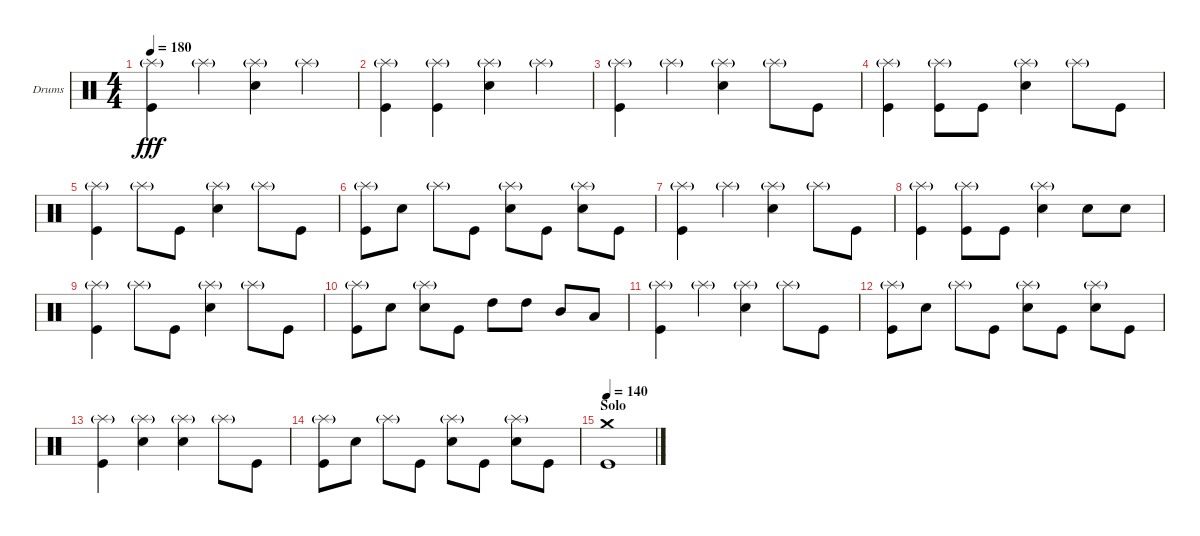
\bracketExtendMode groupsimilarinstruments
\firstSystemTrackNameOrientation horizontal
\otherSystemsTrackNameOrientation horizontal
\track ("Drumkit" "Drums") {instrument percussion}
\staff {score}
\articulation defaults
\ts (4 4)
\tempo 180
\clef neutral
\scale
0.333333
\ks c
("Kick (hit)" "Splash (hit)"{g}).4{dy fff} "Splash (hit)"{g}.4 ("Snare (hit) 2" "Splash (hit)"{g}).4 "Splash (hit)"{g}.4 |
\scale
0.333333 ("Kick (hit)" "Splash (hit)"{g}).4 ("Kick (hit)" "Splash (hit)"{g}).4 ("Snare (hit) 2" "Splash (hit)"{g}).4 "Splash (hit)"{g}.4 |
\scale
0.333333 ("Kick (hit)" "Splash (hit)"{g}).4 "Splash (hit)"{g}.4 ("Snare (hit) 2" "Splash (hit)"{g}).4 "Splash (hit)"{g}.8 "Kick (hit)".8 |
\scale
0.333333 ("Kick (hit)" "Splash (hit)"{g}).4 ("Kick (hit)" "Splash (hit)"{g}).8 "Kick (hit)".8 ("Snare (hit) 2" "Splash (hit)"{g}).4 "Splash (hit)"{g}.8 "Kick (hit)".8 |
\scale
0.333333 ("Kick (hit)" "Splash (hit)"{g}).4 "Splash (hit)"{g}.8 "Kick (hit)".8 ("Snare (hit) 2" "Splash (hit)"{g}).4 "Splash (hit)"{g}.8 "Kick (hit)".8 |
\scale
0.333333 ("Kick (hit)" "Splash (hit)"{g}).8 "Snare (hit) 2".8 "Splash (hit)"{g}.8 "Kick (hit)".8 ("Snare (hit) 2" "Splash (hit)"{g}).8 "Kick (hit)".8 ("Snare (hit) 2" "Splash (hit)"{g}).8 "Kick (hit)".8 |
\scale
0.333333 ("Kick (hit)" "Splash (hit)"{g}).4 "Splash (hit)"{g}.4 ("Snare (hit) 2" "Splash (hit)"{g}).4 "Splash (hit)"{g}.8 "Kick (hit)".8 |
\scale
0.333333 ("Kick (hit)" "Splash (hit)"{g}).4 ("Kick (hit)" "Splash (hit)"{g}).8 "Kick (hit)".8 ("Snare (hit) 2" "Splash (hit)"{g}).4 "Snare (hit) 2".8 "Snare (hit) 2".8 |
\scale
0.333333 ("Kick (hit)" "Splash (hit)"{g}).4 "Splash (hit)"{g}.8 "Kick (hit)".8 ("Snare (hit) 2" "Splash (hit)"{g}).4 "Splash (hit)"{g}.8 "Kick (hit)".8 |
\scale
0.333333 ("Kick (hit)" "Splash (hit)"{g}).8 "Snare (hit) 2".8 ("Snare (hit) 2" "Splash (hit)"{g}).8 "Kick (hit)".8 "High Tom (hit)".8 "High Tom (hit)".8 "Mid Tom (hit)".8 "Low Tom (hit)".8 |
\scale
0.333333 ("Kick (hit)" "Splash (hit)"{g}).4 "Splash (hit)"{g}.4 ("Snare (hit) 2" "Splash (hit)"{g}).4 "Splash (hit)"{g}.8 "Kick (hit)".8 |
\scale
0.333333 ("Kick (hit)" "Splash (hit)"{g}).8 "Snare (hit) 2".8 "Splash (hit)"{g}.8 "Kick (hit)".8 ("Snare (hit) 2" "Splash (hit)"{g}).8 "Kick (hit)".8 ("Snare (hit) 2" "Splash (hit)"{g}).8 "Kick (hit)".8 |
\scale
0.333333 ("Kick (hit)" "Splash (hit)"{g}).4 ("Snare (hit) 2" "Splash (hit)"{g}).4 ("Snare (hit) 2" "Splash (hit)"{g}).4 "Splash (hit)"{g}.8 "Kick (hit)".8 |
\scale
0.333333 ("Kick (hit)" "Splash (hit)"{g}).8 "Snare (hit) 2".8 "Splash (hit)"{g}.8 "Kick (hit)".8 ("Snare (hit) 2" "Splash (hit)"{g}).8 "Kick (hit)".8 ("Snare (hit) 2" "Splash (hit)"{g}).8 "Kick (hit)".8 |
\section ("" "Solo")
\tempo 140
\scale
0.333333 ("Crash medium (hit)" "Kick (hit)").1 |
\scale
0.333333
